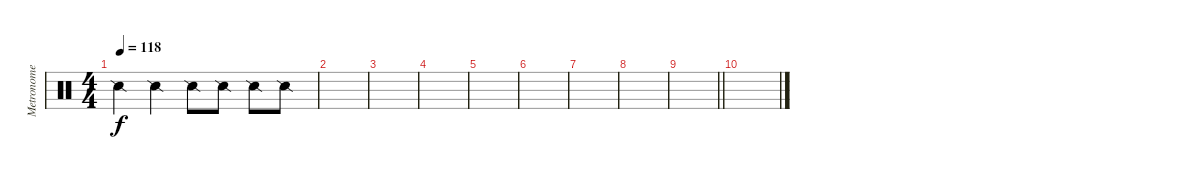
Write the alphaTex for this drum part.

\track ("Metronome" "Metronome") {instrument percussion}
\staff {score}
\articulation defaults
\ts (4 4)
\tempo 118
\clef neutral
\ks c "Snare (side stick) 2".4{dy f} "Snare (side stick) 2".4 "Snare (side stick) 2".8 "Snare (side stick) 2".8 "Snare (side stick) 2".8 "Snare (side stick) 2".8
|
|
|
|
|
|
|
|
\barLineRight lightlight
|
\section ("" "")
